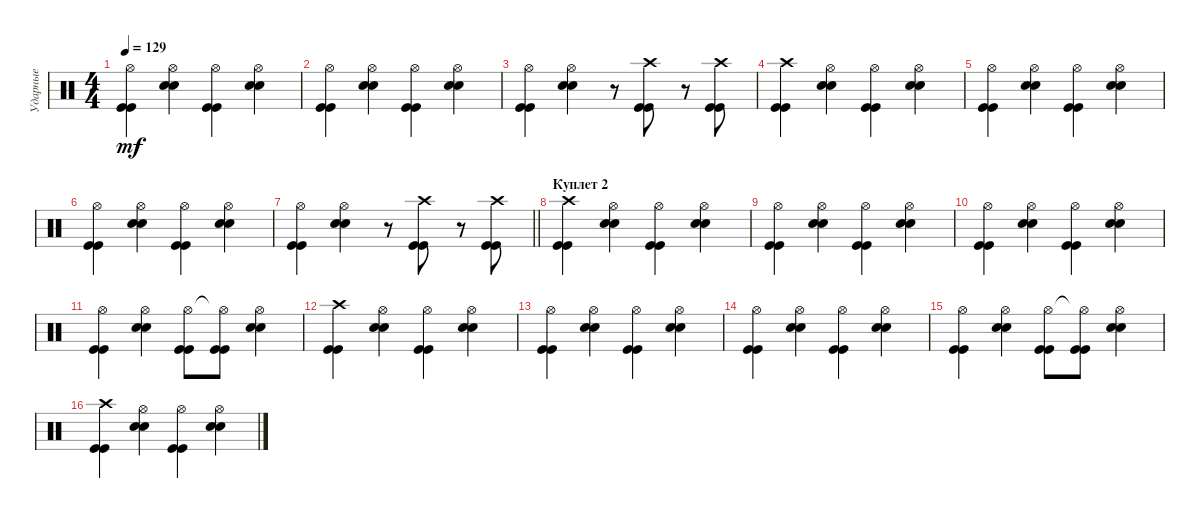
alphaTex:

\track ("Ударные" "Ударные") {instrument percussion}
\staff {score}
\articulation defaults
\ts (4 4)
\tempo 129
\clef neutral
\ks c
("Hi-Hat (open)" "Kick (hit)" "Kick (hit)").4{dy mf} ("Hi-Hat (open)" "Snare (hit) 2" "Snare (hit) 2").4 ("Hi-Hat (open)" "Kick (hit)" "Kick (hit)").4 ("Hi-Hat (open)" "Snare (hit) 2" "Snare (hit) 2").4 |
("Hi-Hat (open)" "Kick (hit)" "Kick (hit)").4 ("Hi-Hat (open)" "Snare (hit) 2" "Snare (hit) 2").4 ("Hi-Hat (open)" "Kick (hit)" "Kick (hit)").4 ("Hi-Hat (open)" "Snare (hit) 2" "Snare (hit) 2").4 |
("Hi-Hat (open)" "Kick (hit)" "Kick (hit)").4 ("Hi-Hat (open)" "Snare (hit) 2" "Snare (hit) 2").4 r.8 ("Crash high (hit)" "Kick (hit)" "Kick (hit)").8 r.8 ("Crash high (hit)" "Kick (hit)" "Kick (hit)").8 |
("Crash high (hit)" "Kick (hit)" "Kick (hit)").4 ("Hi-Hat (open)" "Snare (hit) 2" "Snare (hit) 2").4 ("Hi-Hat (open)" "Kick (hit)" "Kick (hit)").4 ("Hi-Hat (open)" "Snare (hit) 2" "Snare (hit) 2").4 |
("Hi-Hat (open)" "Kick (hit)" "Kick (hit)").4 ("Hi-Hat (open)" "Snare (hit) 2" "Snare (hit) 2").4 ("Hi-Hat (open)" "Kick (hit)" "Kick (hit)").4 ("Hi-Hat (open)" "Snare (hit) 2" "Snare (hit) 2").4 |
("Hi-Hat (open)" "Kick (hit)" "Kick (hit)").4 ("Hi-Hat (open)" "Snare (hit) 2" "Snare (hit) 2").4 ("Hi-Hat (open)" "Kick (hit)" "Kick (hit)").4 ("Hi-Hat (open)" "Snare (hit) 2" "Snare (hit) 2").4 |
\barLineRight lightlight
("Hi-Hat (open)" "Kick (hit)" "Kick (hit)").4 ("Hi-Hat (open)" "Snare (hit) 2" "Snare (hit) 2").4 r.8 ("Crash high (hit)" "Kick (hit)" "Kick (hit)").8 r.8 ("Crash high (hit)" "Kick (hit)" "Kick (hit)").8 |
\section ("" "Куплет 2")
("Crash high (hit)" "Kick (hit)" "Kick (hit)").4 ("Hi-Hat (open)" "Snare (hit) 2" "Snare (hit) 2").4 ("Hi-Hat (open)" "Kick (hit)" "Kick (hit)").4 ("Hi-Hat (open)" "Snare (hit) 2" "Snare (hit) 2").4 |
("Hi-Hat (open)" "Kick (hit)" "Kick (hit)").4 ("Hi-Hat (open)" "Snare (hit) 2" "Snare (hit) 2").4 ("Hi-Hat (open)" "Kick (hit)" "Kick (hit)").4 ("Hi-Hat (open)" "Snare (hit) 2" "Snare (hit) 2").4 |
("Hi-Hat (open)" "Kick (hit)" "Kick (hit)").4 ("Hi-Hat (open)" "Snare (hit) 2" "Snare (hit) 2").4 ("Hi-Hat (open)" "Kick (hit)" "Kick (hit)").4 ("Hi-Hat (open)" "Snare (hit) 2" "Snare (hit) 2").4 |
("Hi-Hat (open)" "Kick (hit)" "Kick (hit)").4 ("Hi-Hat (open)" "Snare (hit) 2" "Snare (hit) 2").4 ("Hi-Hat (open)" "Kick (hit)" "Kick (hit)").8 ("Hi-Hat (open)"{t} "Kick (hit)" "Kick (hit)").8 ("Hi-Hat (open)" "Snare (hit) 2" "Snare (hit) 2").4 |
("Crash high (hit)" "Kick (hit)" "Kick (hit)").4 ("Hi-Hat (open)" "Snare (hit) 2" "Snare (hit) 2").4 ("Hi-Hat (open)" "Kick (hit)" "Kick (hit)").4 ("Hi-Hat (open)" "Snare (hit) 2" "Snare (hit) 2").4 |
("Hi-Hat (open)" "Kick (hit)" "Kick (hit)").4 ("Hi-Hat (open)" "Snare (hit) 2" "Snare (hit) 2").4 ("Hi-Hat (open)" "Kick (hit)" "Kick (hit)").4 ("Hi-Hat (open)" "Snare (hit) 2" "Snare (hit) 2").4 |
("Hi-Hat (open)" "Kick (hit)" "Kick (hit)").4 ("Hi-Hat (open)" "Snare (hit) 2" "Snare (hit) 2").4 ("Hi-Hat (open)" "Kick (hit)" "Kick (hit)").4 ("Hi-Hat (open)" "Snare (hit) 2" "Snare (hit) 2").4 |
("Hi-Hat (open)" "Kick (hit)" "Kick (hit)").4 ("Hi-Hat (open)" "Snare (hit) 2" "Snare (hit) 2").4 ("Hi-Hat (open)" "Kick (hit)" "Kick (hit)").8 ("Hi-Hat (open)"{t} "Kick (hit)" "Kick (hit)").8 ("Hi-Hat (open)" "Snare (hit) 2" "Snare (hit) 2").4 |
("Crash high (hit)" "Kick (hit)" "Kick (hit)").4 ("Hi-Hat (open)" "Snare (hit) 2" "Snare (hit) 2").4 ("Hi-Hat (open)" "Kick (hit)" "Kick (hit)").4 ("Hi-Hat (open)" "Snare (hit) 2" "Snare (hit) 2").4
